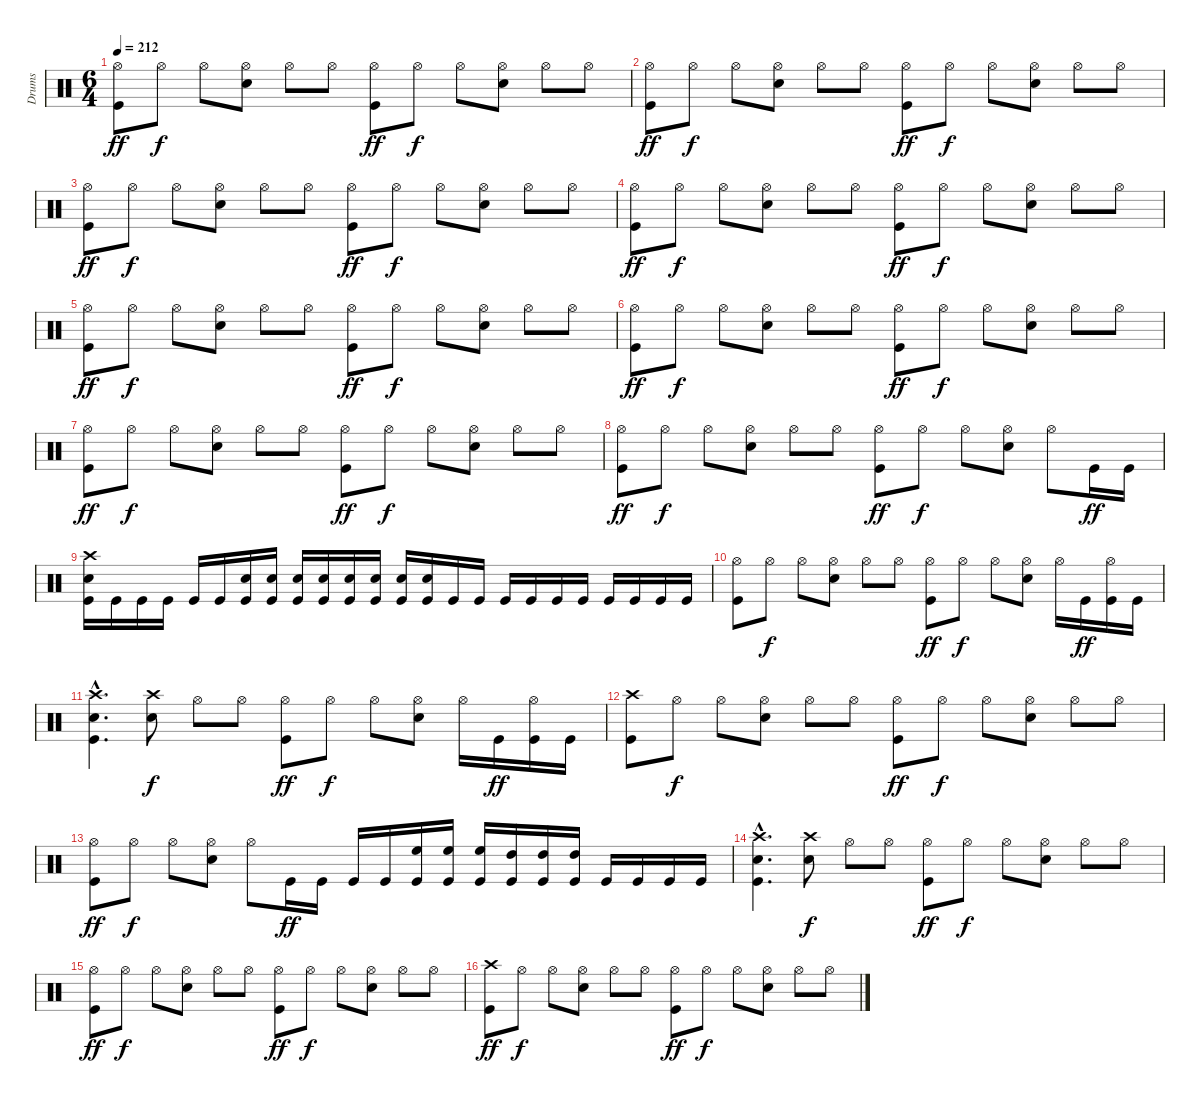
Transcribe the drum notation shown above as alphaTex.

\track ("Drums" "Drums") {instrument percussion}
\staff {score}
\articulation defaults
\ts (6 4)
\tempo 212
\clef neutral
\ks c
("Hi-Hat (open)" "Kick (hit)").8{dy ff} "Hi-Hat (open)".8{dy f} "Hi-Hat (open)".8 ("Hi-Hat (open)" "Snare (hit) 2").8 "Hi-Hat (open)".8 "Hi-Hat (open)".8 ("Hi-Hat (open)" "Kick (hit)").8{dy ff} "Hi-Hat (open)".8{dy f} "Hi-Hat (open)".8 ("Hi-Hat (open)" "Snare (hit) 2").8 "Hi-Hat (open)".8 "Hi-Hat (open)".8 |
("Hi-Hat (open)" "Kick (hit)").8{dy ff} "Hi-Hat (open)".8{dy f} "Hi-Hat (open)".8 ("Hi-Hat (open)" "Snare (hit) 2").8 "Hi-Hat (open)".8 "Hi-Hat (open)".8 ("Hi-Hat (open)" "Kick (hit)").8{dy ff} "Hi-Hat (open)".8{dy f} "Hi-Hat (open)".8 ("Hi-Hat (open)" "Snare (hit) 2").8 "Hi-Hat (open)".8 "Hi-Hat (open)".8 |
("Hi-Hat (open)" "Kick (hit)").8{dy ff} "Hi-Hat (open)".8{dy f} "Hi-Hat (open)".8 ("Hi-Hat (open)" "Snare (hit) 2").8 "Hi-Hat (open)".8 "Hi-Hat (open)".8 ("Hi-Hat (open)" "Kick (hit)").8{dy ff} "Hi-Hat (open)".8{dy f} "Hi-Hat (open)".8 ("Hi-Hat (open)" "Snare (hit) 2").8 "Hi-Hat (open)".8 "Hi-Hat (open)".8 |
("Hi-Hat (open)" "Kick (hit)").8{dy ff} "Hi-Hat (open)".8{dy f} "Hi-Hat (open)".8 ("Hi-Hat (open)" "Snare (hit) 2").8 "Hi-Hat (open)".8 "Hi-Hat (open)".8 ("Hi-Hat (open)" "Kick (hit)").8{dy ff} "Hi-Hat (open)".8{dy f} "Hi-Hat (open)".8 ("Hi-Hat (open)" "Snare (hit) 2").8 "Hi-Hat (open)".8 "Hi-Hat (open)".8 |
("Hi-Hat (open)" "Kick (hit)").8{dy ff} "Hi-Hat (open)".8{dy f} "Hi-Hat (open)".8 ("Hi-Hat (open)" "Snare (hit) 2").8 "Hi-Hat (open)".8 "Hi-Hat (open)".8 ("Hi-Hat (open)" "Kick (hit)").8{dy ff} "Hi-Hat (open)".8{dy f} "Hi-Hat (open)".8 ("Hi-Hat (open)" "Snare (hit) 2").8 "Hi-Hat (open)".8 "Hi-Hat (open)".8 |
("Hi-Hat (open)" "Kick (hit)").8{dy ff} "Hi-Hat (open)".8{dy f} "Hi-Hat (open)".8 ("Hi-Hat (open)" "Snare (hit) 2").8 "Hi-Hat (open)".8 "Hi-Hat (open)".8 ("Hi-Hat (open)" "Kick (hit)").8{dy ff} "Hi-Hat (open)".8{dy f} "Hi-Hat (open)".8 ("Hi-Hat (open)" "Snare (hit) 2").8 "Hi-Hat (open)".8 "Hi-Hat (open)".8 |
("Hi-Hat (open)" "Kick (hit)").8{dy ff} "Hi-Hat (open)".8{dy f} "Hi-Hat (open)".8 ("Hi-Hat (open)" "Snare (hit) 2").8 "Hi-Hat (open)".8 "Hi-Hat (open)".8 ("Hi-Hat (open)" "Kick (hit)").8{dy ff} "Hi-Hat (open)".8{dy f} "Hi-Hat (open)".8 ("Hi-Hat (open)" "Snare (hit) 2").8 "Hi-Hat (open)".8 "Hi-Hat (open)".8 |
("Hi-Hat (open)" "Kick (hit)").8{dy ff} "Hi-Hat (open)".8{dy f} "Hi-Hat (open)".8 ("Hi-Hat (open)" "Snare (hit) 2").8 "Hi-Hat (open)".8 "Hi-Hat (open)".8 ("Hi-Hat (open)" "Kick (hit)").8{dy ff} "Hi-Hat (open)".8{dy f} "Hi-Hat (open)".8 ("Hi-Hat (open)" "Snare (hit) 2").8 "Hi-Hat (open)".8 "Kick (hit)".16{dy ff} "Kick (hit)".16 |
("Crash high (hit)" "Snare (hit) 2" "Kick (hit)").16 "Kick (hit)".16 "Kick (hit)".16 "Kick (hit)".16 "Kick (hit)".16 "Kick (hit)".16 ("Snare (hit) 2" "Kick (hit)").16 ("Snare (hit) 2" "Kick (hit)").16 ("Snare (hit) 2" "Kick (hit)").16 ("Snare (hit) 2" "Kick (hit)").16 ("Snare (hit) 2" "Kick (hit)").16 ("Snare (hit) 2" "Kick (hit)").16 ("Snare (hit) 2" "Kick (hit)").16 ("Snare (hit) 2" "Kick (hit)").16 "Kick (hit)".16 "Kick (hit)".16 "Kick (hit)".16 "Kick (hit)".16 "Kick (hit)".16 "Kick (hit)".16 "Kick (hit)".16 "Kick (hit)".16 "Kick (hit)".16 "Kick (hit)".16 |
("Hi-Hat (open)" "Kick (hit)").8 "Hi-Hat (open)".8{dy f} "Hi-Hat (open)".8 ("Hi-Hat (open)" "Snare (hit) 2").8 "Hi-Hat (open)".8 "Hi-Hat (open)".8 ("Hi-Hat (open)" "Kick (hit)").8{dy ff} "Hi-Hat (open)".8{dy f} "Hi-Hat (open)".8 ("Hi-Hat (open)" "Snare (hit) 2").8 "Hi-Hat (open)".16 "Kick (hit)".16{dy ff} ("Hi-Hat (open)" "Kick (hit)").16 "Kick (hit)".16 |
("Crash high (hit)"{hac} "Snare (hit) 2"{hac} "Kick (hit)"{hac}).4{d} ("Crash high (hit)" "Snare (hit) 2").8{dy f} "Hi-Hat (open)".8 "Hi-Hat (open)".8 ("Hi-Hat (open)" "Kick (hit)").8{dy ff} "Hi-Hat (open)".8{dy f} "Hi-Hat (open)".8 ("Hi-Hat (open)" "Snare (hit) 2").8 "Hi-Hat (open)".16 "Kick (hit)".16{dy ff} ("Hi-Hat (open)" "Kick (hit)").16 "Kick (hit)".16 |
("Crash high (hit)" "Kick (hit)").8 "Hi-Hat (open)".8{dy f} "Hi-Hat (open)".8 ("Hi-Hat (open)" "Snare (hit) 2").8 "Hi-Hat (open)".8 "Hi-Hat (open)".8 ("Hi-Hat (open)" "Kick (hit)").8{dy ff} "Hi-Hat (open)".8{dy f} "Hi-Hat (open)".8 ("Hi-Hat (open)" "Snare (hit) 2").8 "Hi-Hat (open)".8 "Hi-Hat (open)".8 |
("Hi-Hat (open)" "Kick (hit)").8{dy ff} "Hi-Hat (open)".8{dy f} "Hi-Hat (open)".8 ("Hi-Hat (open)" "Snare (hit) 2").8 "Hi-Hat (open)".8 "Kick (hit)".16{dy ff} "Kick (hit)".16 "Kick (hit)".16 "Kick (hit)".16 ("High Floor Tom (hit)" "Kick (hit)").16 ("High Floor Tom (hit)" "Kick (hit)").16 ("High Floor Tom (hit)" "Kick (hit)").16 ("High Tom (hit)" "Kick (hit)").16 ("High Tom (hit)" "Kick (hit)").16 ("High Tom (hit)" "Kick (hit)").16 "Kick (hit)".16 "Kick (hit)".16 "Kick (hit)".16 "Kick (hit)".16 |
("Crash high (hit)"{hac} "Snare (hit) 2"{hac} "Kick (hit)"{hac}).4{d} ("Crash high (hit)" "Snare (hit) 2").8{dy f} "Hi-Hat (open)".8 "Hi-Hat (open)".8 ("Hi-Hat (open)" "Kick (hit)").8{dy ff} "Hi-Hat (open)".8{dy f} "Hi-Hat (open)".8 ("Hi-Hat (open)" "Snare (hit) 2").8 "Hi-Hat (open)".8 "Hi-Hat (open)".8 |
("Hi-Hat (open)" "Kick (hit)").8{dy ff} "Hi-Hat (open)".8{dy f} "Hi-Hat (open)".8 ("Hi-Hat (open)" "Snare (hit) 2").8 "Hi-Hat (open)".8 "Hi-Hat (open)".8 ("Hi-Hat (open)" "Kick (hit)").8{dy ff} "Hi-Hat (open)".8{dy f} "Hi-Hat (open)".8 ("Hi-Hat (open)" "Snare (hit) 2").8 "Hi-Hat (open)".8 "Hi-Hat (open)".8 |
("Crash high (hit)" "Kick (hit)").8{dy ff} "Hi-Hat (open)".8{dy f} "Hi-Hat (open)".8 ("Hi-Hat (open)" "Snare (hit) 2").8 "Hi-Hat (open)".8 "Hi-Hat (open)".8 ("Hi-Hat (open)" "Kick (hit)").8{dy ff} "Hi-Hat (open)".8{dy f} "Hi-Hat (open)".8 ("Hi-Hat (open)" "Snare (hit) 2").8 "Hi-Hat (open)".8 "Hi-Hat (open)".8
